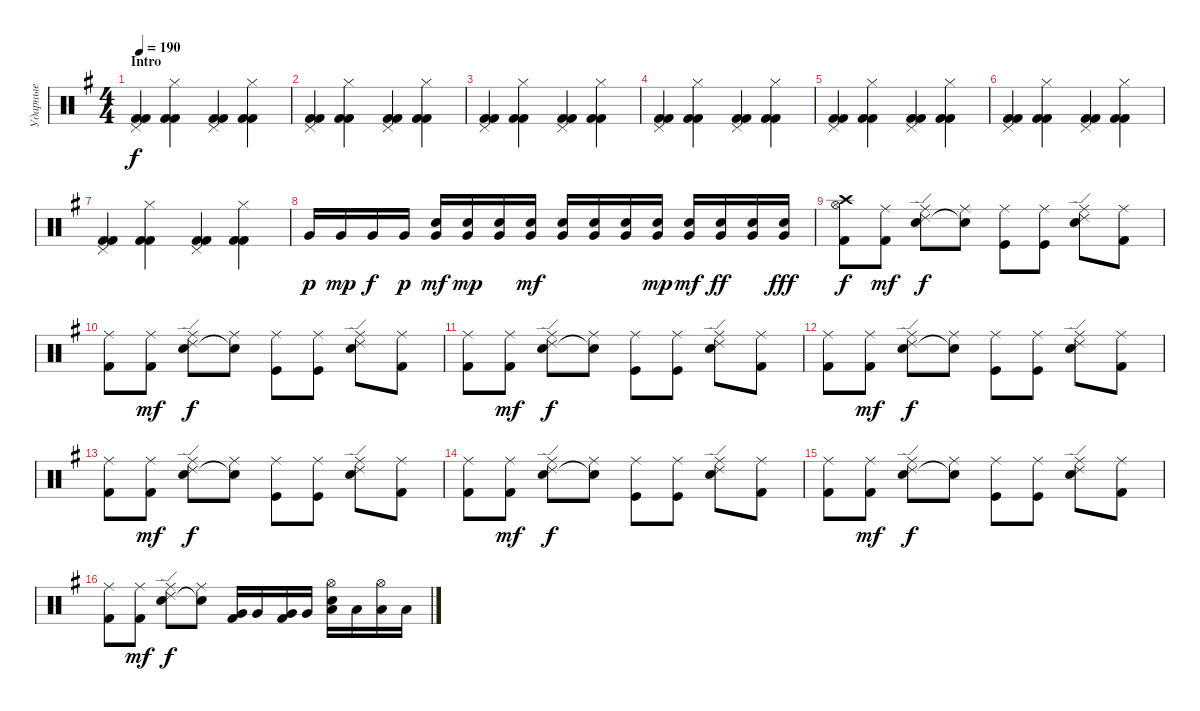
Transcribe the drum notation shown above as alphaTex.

\track ("Ударные" "Ударные") {instrument percussion}
\staff {score}
\articulation defaults
\ts (4 4)
\section ("" "Intro")
\tempo 190
\clef neutral
\ks g
("Pedal Hi-Hat (hit)" "Kick (hit) 2" "Kick (hit) 2").4{dy f} ("Hi-Hat (closed)" "Kick (hit) 2" "Kick (hit) 2").4 ("Pedal Hi-Hat (hit)" "Kick (hit) 2" "Kick (hit) 2").4 ("Hi-Hat (closed)" "Kick (hit) 2" "Kick (hit) 2").4 |
("Pedal Hi-Hat (hit)" "Kick (hit) 2" "Kick (hit) 2").4 ("Hi-Hat (closed)" "Kick (hit) 2" "Kick (hit) 2").4 ("Pedal Hi-Hat (hit)" "Kick (hit) 2" "Kick (hit) 2").4 ("Hi-Hat (closed)" "Kick (hit) 2" "Kick (hit) 2").4 |
("Pedal Hi-Hat (hit)" "Kick (hit) 2" "Kick (hit) 2").4 ("Hi-Hat (closed)" "Kick (hit) 2" "Kick (hit) 2").4 ("Pedal Hi-Hat (hit)" "Kick (hit) 2" "Kick (hit) 2").4 ("Hi-Hat (closed)" "Kick (hit) 2" "Kick (hit) 2").4 |
("Pedal Hi-Hat (hit)" "Kick (hit) 2" "Kick (hit) 2").4 ("Hi-Hat (closed)" "Kick (hit) 2" "Kick (hit) 2").4 ("Pedal Hi-Hat (hit)" "Kick (hit) 2" "Kick (hit) 2").4 ("Hi-Hat (closed)" "Kick (hit) 2" "Kick (hit) 2").4 |
("Pedal Hi-Hat (hit)" "Kick (hit) 2" "Kick (hit) 2").4 ("Hi-Hat (closed)" "Kick (hit) 2" "Kick (hit) 2").4 ("Pedal Hi-Hat (hit)" "Kick (hit) 2" "Kick (hit) 2").4 ("Hi-Hat (closed)" "Kick (hit) 2" "Kick (hit) 2").4 |
("Pedal Hi-Hat (hit)" "Kick (hit) 2" "Kick (hit) 2").4 ("Hi-Hat (closed)" "Kick (hit) 2" "Kick (hit) 2").4 ("Pedal Hi-Hat (hit)" "Kick (hit) 2" "Kick (hit) 2").4 ("Hi-Hat (closed)" "Kick (hit) 2" "Kick (hit) 2").4 |
("Pedal Hi-Hat (hit)" "Kick (hit) 2" "Kick (hit) 2").4 ("Hi-Hat (closed)" "Kick (hit) 2" "Kick (hit) 2").4 ("Pedal Hi-Hat (hit)" "Kick (hit) 2" "Kick (hit) 2").4 ("Hi-Hat (closed)" "Kick (hit) 2" "Kick (hit) 2").4 |
"Very Low Tom (hit)".16{dy p} "Very Low Tom (hit)".16{dy mp} "Very Low Tom (hit)".16{dy f} "Very Low Tom (hit)".16{dy p} ("Very Low Tom (hit)" "Snare (hit) 2").16{dy mf} ("Very Low Tom (hit)" "Snare (hit) 2").16{dy mp} ("Very Low Tom (hit)" "Snare (hit) 2").16 ("Very Low Tom (hit)" "Snare (hit) 2").16{dy mf} ("Very Low Tom (hit)" "Snare (hit) 2").16 ("Very Low Tom (hit)" "Snare (hit) 2").16 ("Very Low Tom (hit)" "Snare (hit) 2").16 ("Very Low Tom (hit)" "Snare (hit) 2").16{dy mp} ("Very Low Tom (hit)" "Snare (hit) 2").16{dy mf} ("Very Low Tom (hit)" "Snare (hit) 2").16{dy ff} ("Very Low Tom (hit)" "Snare (hit) 2").16 ("Very Low Tom (hit)" "Snare (hit) 2").16{dy fff} |
("Kick (hit) 2" "Crash high (hit)" "Hi-Hat (open)").8{dy f} ("Kick (hit) 2" "Ride (middle)").8{dy mf} ("Snare (hit) 2" "Ride (edge) 2" "Ride (middle)").8{dy f} ("Snare (hit)"{t} "Ride (middle)").8 ("Kick (hit)" "Ride (middle)").8 ("Kick (hit)" "Ride (middle)").8 ("Snare (hit) 2" "Ride (edge) 2" "Ride (middle)").8 ("Kick (hit) 2" "Ride (middle)").8 |
("Kick (hit) 2" "Ride (middle)").8 ("Kick (hit) 2" "Ride (middle)").8{dy mf} ("Snare (hit) 2" "Ride (edge) 2" "Ride (middle)").8{dy f} ("Snare (hit)"{t} "Ride (middle)").8 ("Kick (hit)" "Ride (middle)").8 ("Kick (hit)" "Ride (middle)").8 ("Snare (hit) 2" "Ride (edge) 2" "Ride (middle)").8 ("Kick (hit) 2" "Ride (middle)").8 |
("Kick (hit) 2" "Ride (middle)").8 ("Kick (hit) 2" "Ride (middle)").8{dy mf} ("Snare (hit) 2" "Ride (edge) 2" "Ride (middle)").8{dy f} ("Snare (hit)"{t} "Ride (middle)").8 ("Kick (hit)" "Ride (middle)").8 ("Kick (hit)" "Ride (middle)").8 ("Snare (hit) 2" "Ride (edge) 2" "Ride (middle)").8 ("Kick (hit) 2" "Ride (middle)").8 |
("Kick (hit) 2" "Ride (middle)").8 ("Kick (hit) 2" "Ride (middle)").8{dy mf} ("Snare (hit) 2" "Ride (edge) 2" "Ride (middle)").8{dy f} ("Snare (hit)"{t} "Ride (middle)").8 ("Kick (hit)" "Ride (middle)").8 ("Kick (hit)" "Ride (middle)").8 ("Snare (hit) 2" "Ride (edge) 2" "Ride (middle)").8 ("Kick (hit) 2" "Ride (middle)").8 |
("Kick (hit) 2" "Ride (middle)").8 ("Kick (hit) 2" "Ride (middle)").8{dy mf} ("Snare (hit) 2" "Ride (edge) 2" "Ride (middle)").8{dy f} ("Snare (hit)"{t} "Ride (middle)").8 ("Kick (hit)" "Ride (middle)").8 ("Kick (hit)" "Ride (middle)").8 ("Snare (hit) 2" "Ride (edge) 2" "Ride (middle)").8 ("Kick (hit) 2" "Ride (middle)").8 |
("Kick (hit) 2" "Ride (middle)").8 ("Kick (hit) 2" "Ride (middle)").8{dy mf} ("Snare (hit) 2" "Ride (edge) 2" "Ride (middle)").8{dy f} ("Snare (hit)"{t} "Ride (middle)").8 ("Kick (hit)" "Ride (middle)").8 ("Kick (hit)" "Ride (middle)").8 ("Snare (hit) 2" "Ride (edge) 2" "Ride (middle)").8 ("Kick (hit) 2" "Ride (middle)").8 |
("Kick (hit) 2" "Ride (middle)").8 ("Kick (hit) 2" "Ride (middle)").8{dy mf} ("Snare (hit) 2" "Ride (edge) 2" "Ride (middle)").8{dy f} ("Snare (hit)"{t} "Ride (middle)").8 ("Kick (hit)" "Ride (middle)").8 ("Kick (hit)" "Ride (middle)").8 ("Snare (hit) 2" "Ride (edge) 2" "Ride (middle)").8 ("Kick (hit) 2" "Ride (middle)").8 |
("Kick (hit) 2" "Ride (middle)").8 ("Kick (hit) 2" "Ride (middle)").8{dy mf} ("Snare (hit) 2" "Ride (edge) 2" "Ride (middle)").8{dy f} ("Snare (hit)"{t} "Ride (middle)").8 ("Kick (hit) 2" "Very Low Tom (hit)").16 "Very Low Tom (hit)".16 ("Kick (hit) 2" "Very Low Tom (hit)").16 "Very Low Tom (hit)".16 ("Snare (hit) 2" "Low Tom (hit)" "Hi-Hat (open)").16 "Low Tom (hit)".16 ("Low Tom (hit)" "Hi-Hat (open)").16 "Low Tom (hit)".16
